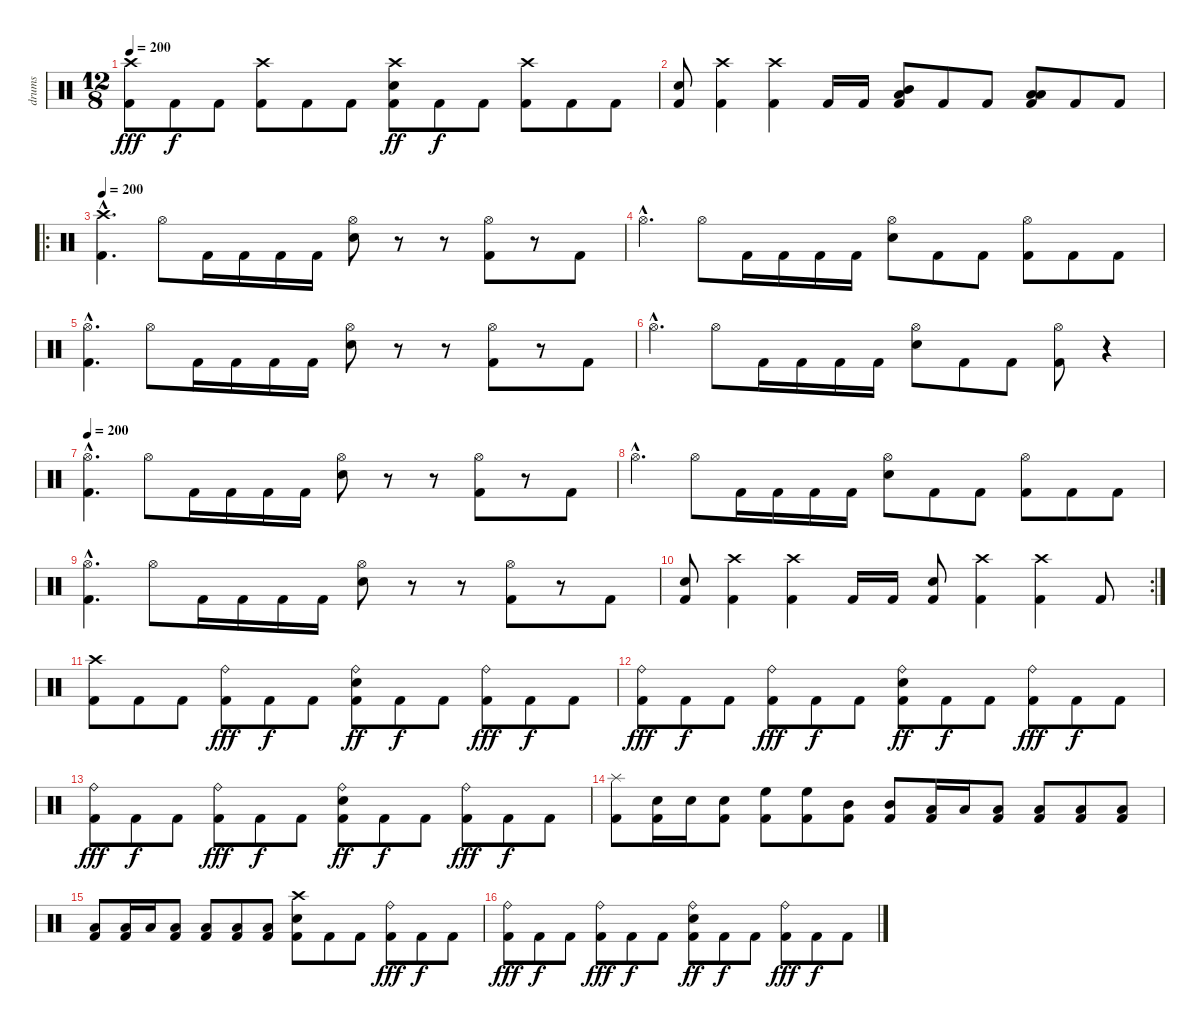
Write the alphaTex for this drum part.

\track ("drums" "drums") {instrument percussion}
\staff {score}
\articulation defaults
\ts (12 8)
\tempo 200
\clef neutral
\ks c
("Crash high (hit)" "Kick (hit) 2").8{dy fff} "Kick (hit) 2".8{dy f} "Kick (hit) 2".8 ("Crash high (hit)" "Kick (hit) 2").8 "Kick (hit) 2".8 "Kick (hit) 2".8 ("Crash high (hit)" "Electric Snare (hit)" "Kick (hit) 2").8{dy ff} "Kick (hit) 2".8{dy f} "Kick (hit) 2".8 ("Crash high (hit)" "Kick (hit) 2").8 "Kick (hit) 2".8 "Kick (hit) 2".8 |
("Electric Snare (hit)" "Kick (hit) 2").8 ("Crash high (hit)" "Kick (hit) 2").4 ("Crash high (hit)" "Kick (hit) 2").4 "Kick (hit) 2".16 "Kick (hit) 2".16 ("Mid Tom (hit)" "Low Tom (hit)" "Kick (hit) 2").8{bu 480} "Kick (hit) 2".8 "Kick (hit) 2".8 ("Low Tom (hit)" "Low Floor Tom (hit)" "Kick (hit) 2").8{bu 480} "Kick (hit) 2".8 "Kick (hit) 2".8 |
\ro
\tempo 200
("Crash high (hit)"{hac} "Kick (hit) 2"{hac}).4{d} "Hi-Hat (open)".8 "Kick (hit) 2".16 "Kick (hit) 2".16 "Kick (hit) 2".16 "Kick (hit) 2".16 ("Hi-Hat (open)" "Electric Snare (hit)").8 r.8 r.8 ("Hi-Hat (open)" "Kick (hit) 2").8 r.8 "Kick (hit) 2".8 |
"Hi-Hat (open)"{hac}.4{d} "Hi-Hat (open)".8 "Kick (hit) 2".16 "Kick (hit) 2".16 "Kick (hit) 2".16 "Kick (hit) 2".16 ("Hi-Hat (open)" "Electric Snare (hit)").8 "Kick (hit) 2".8 "Kick (hit) 2".8 ("Hi-Hat (open)" "Kick (hit) 2").8 "Kick (hit) 2".8 "Kick (hit) 2".8 |
("Hi-Hat (open)"{hac} "Kick (hit) 2"{hac}).4{d} "Hi-Hat (open)".8 "Kick (hit) 2".16 "Kick (hit) 2".16 "Kick (hit) 2".16 "Kick (hit) 2".16 ("Hi-Hat (open)" "Electric Snare (hit)").8 r.8 r.8 ("Hi-Hat (open)" "Kick (hit) 2").8 r.8 "Kick (hit) 2".8 |
"Hi-Hat (open)"{hac}.4{d} "Hi-Hat (open)".8 "Kick (hit) 2".16 "Kick (hit) 2".16 "Kick (hit) 2".16 "Kick (hit) 2".16 ("Hi-Hat (open)" "Electric Snare (hit)").8 "Kick (hit) 2".8 "Kick (hit) 2".8 ("Hi-Hat (open)" "Kick (hit) 2").8 r.4 |
\tempo 200
("Hi-Hat (open)"{hac} "Kick (hit) 2"{hac}).4{d} "Hi-Hat (open)".8 "Kick (hit) 2".16 "Kick (hit) 2".16 "Kick (hit) 2".16 "Kick (hit) 2".16 ("Hi-Hat (open)" "Electric Snare (hit)").8 r.8 r.8 ("Hi-Hat (open)" "Kick (hit) 2").8 r.8 "Kick (hit) 2".8 |
"Hi-Hat (open)"{hac}.4{d} "Hi-Hat (open)".8 "Kick (hit) 2".16 "Kick (hit) 2".16 "Kick (hit) 2".16 "Kick (hit) 2".16 ("Hi-Hat (open)" "Electric Snare (hit)").8 "Kick (hit) 2".8 "Kick (hit) 2".8 ("Hi-Hat (open)" "Kick (hit) 2").8 "Kick (hit) 2".8 "Kick (hit) 2".8 |
("Hi-Hat (open)"{hac} "Kick (hit) 2"{hac}).4{d} "Hi-Hat (open)".8 "Kick (hit) 2".16 "Kick (hit) 2".16 "Kick (hit) 2".16 "Kick (hit) 2".16 ("Hi-Hat (open)" "Electric Snare (hit)").8 r.8 r.8 ("Hi-Hat (open)" "Kick (hit) 2").8 r.8 "Kick (hit) 2".8 |
\rc 2
("Electric Snare (hit)" "Kick (hit) 2").8 ("Crash high (hit)" "Kick (hit) 2").4 ("Crash high (hit)" "Kick (hit) 2").4 "Kick (hit) 2".16 "Kick (hit) 2".16 ("Electric Snare (hit)" "Kick (hit) 2").8 ("Crash high (hit)" "Kick (hit) 2").4 ("Crash high (hit)" "Kick (hit) 2").4 "Kick (hit) 2".8 |
("Crash high (hit)" "Kick (hit) 2").8 "Kick (hit) 2".8 "Kick (hit) 2".8 ("Ride (bell)" "Kick (hit) 2").8{dy fff} "Kick (hit) 2".8{dy f} "Kick (hit) 2".8 ("Ride (bell)" "Electric Snare (hit)" "Kick (hit) 2").8{dy ff} "Kick (hit) 2".8{dy f} "Kick (hit) 2".8 ("Ride (bell)" "Kick (hit) 2").8{dy fff} "Kick (hit) 2".8{dy f} "Kick (hit) 2".8 |
("Ride (bell)" "Kick (hit) 2").8{dy fff} "Kick (hit) 2".8{dy f} "Kick (hit) 2".8 ("Ride (bell)" "Kick (hit) 2").8{dy fff} "Kick (hit) 2".8{dy f} "Kick (hit) 2".8 ("Ride (bell)" "Electric Snare (hit)" "Kick (hit) 2").8{dy ff} "Kick (hit) 2".8{dy f} "Kick (hit) 2".8 ("Ride (bell)" "Kick (hit) 2").8{dy fff} "Kick (hit) 2".8{dy f} "Kick (hit) 2".8 |
("Ride (bell)" "Kick (hit) 2").8{dy fff} "Kick (hit) 2".8{dy f} "Kick (hit) 2".8 ("Ride (bell)" "Kick (hit) 2").8{dy fff} "Kick (hit) 2".8{dy f} "Kick (hit) 2".8 ("Ride (bell)" "Electric Snare (hit)" "Kick (hit) 2").8{dy ff} "Kick (hit) 2".8{dy f} "Kick (hit) 2".8 ("Ride (bell)" "Kick (hit) 2").8{dy fff} "Kick (hit) 2".8{dy f} "Kick (hit) 2".8 |
("Splash (hit)" "Kick (hit) 2").8 ("Electric Snare (hit)" "Kick (hit) 2").16 "Electric Snare (hit)".16 ("Electric Snare (hit)" "Kick (hit) 2").8 ("High Floor Tom (hit)" "Kick (hit) 2").8 ("High Floor Tom (hit)" "Kick (hit) 2").8 ("Mid Tom (hit)" "Kick (hit) 2").8 ("Mid Tom (hit)" "Kick (hit) 2").8 ("Low Tom (hit)" "Kick (hit) 2").16 "Low Tom (hit)".16 ("Low Tom (hit)" "Kick (hit) 2").8 ("Low Floor Tom (hit)" "Kick (hit) 2").8 ("Low Floor Tom (hit)" "Kick (hit) 2").8 ("Low Floor Tom (hit)" "Kick (hit) 2").8 |
("Low Tom (hit)" "Kick (hit) 2").8 ("Low Floor Tom (hit)" "Kick (hit) 2").16 "Low Floor Tom (hit)".16 ("Low Floor Tom (hit)" "Kick (hit) 2").8 ("Low Tom (hit)" "Kick (hit) 2").8 ("Low Floor Tom (hit)" "Kick (hit) 2").8 ("Low Floor Tom (hit)" "Kick (hit) 2").8 ("Crash high (hit)" "Electric Snare (hit)" "Kick (hit) 2").8 "Kick (hit) 2".8 "Kick (hit) 2".8 ("Ride (bell)" "Kick (hit) 2").8{dy fff} "Kick (hit) 2".8{dy f} "Kick (hit) 2".8 |
("Ride (bell)" "Kick (hit) 2").8{dy fff} "Kick (hit) 2".8{dy f} "Kick (hit) 2".8 ("Ride (bell)" "Kick (hit) 2").8{dy fff} "Kick (hit) 2".8{dy f} "Kick (hit) 2".8 ("Ride (bell)" "Electric Snare (hit)" "Kick (hit) 2").8{dy ff} "Kick (hit) 2".8{dy f} "Kick (hit) 2".8 ("Ride (bell)" "Kick (hit) 2").8{dy fff} "Kick (hit) 2".8{dy f} "Kick (hit) 2".8
